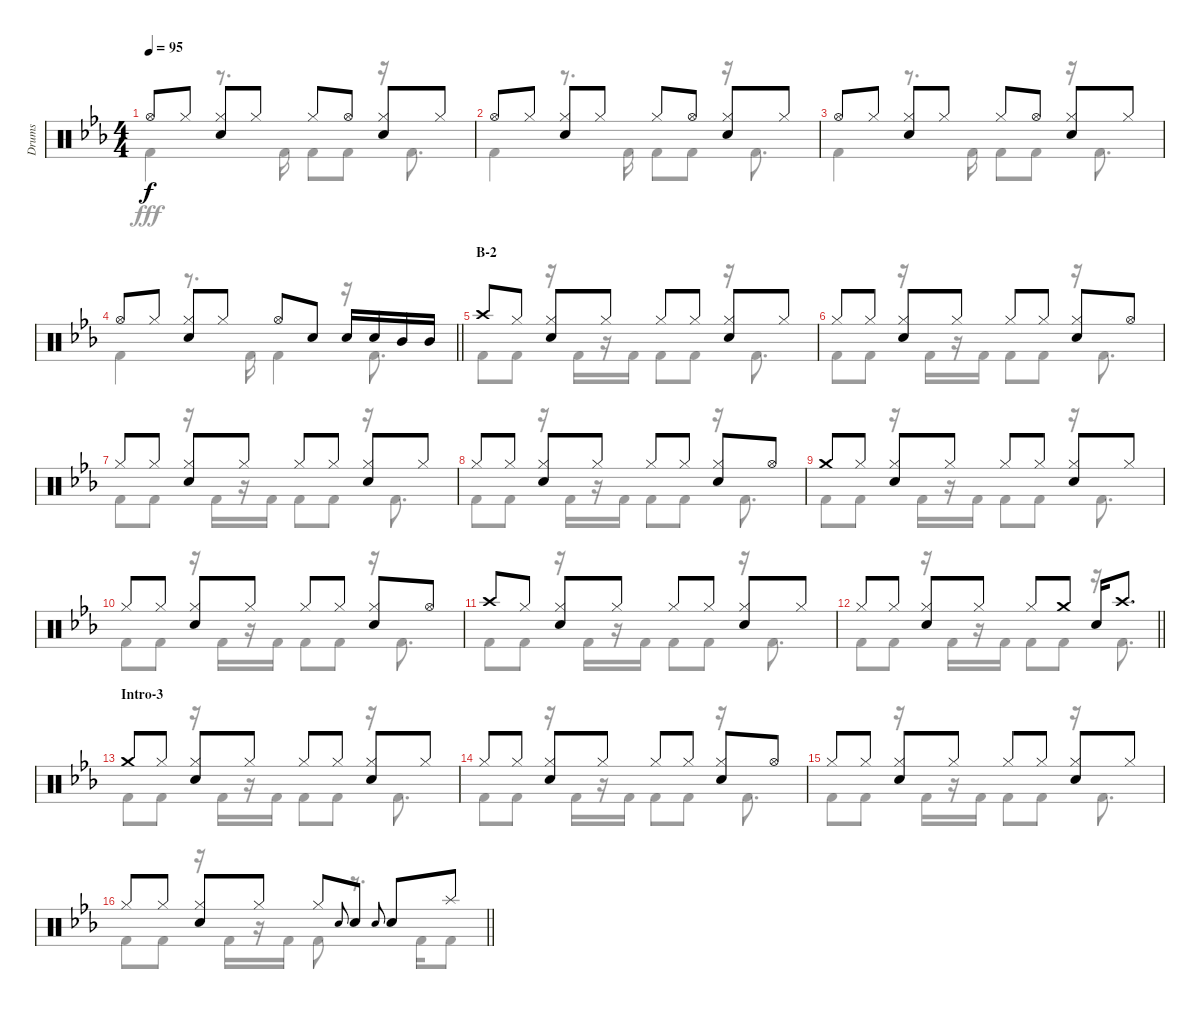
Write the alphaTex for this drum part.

\track ("Drums" "Drums") {instrument percussion}
\staff {score}
\articulation defaults
\voice
\ts (4 4)
\tempo 95
\clef neutral
\ks cminor "Hi-Hat (open)".8{dy f} "Hi-Hat (closed)".8
("Hi-Hat (closed)" "Snare (hit) 2").8 "Hi-Hat (closed)".8 "Hi-Hat (closed)".8 "Hi-Hat (open)".8 ("Hi-Hat (closed)" "Snare (hit) 2").8 "Hi-Hat (closed)".8 |
"Hi-Hat (open)".8 "Hi-Hat (closed)".8 ("Hi-Hat (closed)" "Snare (hit) 2").8 "Hi-Hat (closed)".8 "Hi-Hat (closed)".8 "Hi-Hat (open)".8 ("Hi-Hat (closed)" "Snare (hit) 2").8 "Hi-Hat (closed)".8 |
"Hi-Hat (open)".8 "Hi-Hat (closed)".8 ("Hi-Hat (closed)" "Snare (hit) 2").8 "Hi-Hat (closed)".8 "Hi-Hat (closed)".8 "Hi-Hat (open)".8 ("Hi-Hat (closed)" "Snare (hit) 2").8 "Hi-Hat (closed)".8 |
\barLineRight lightlight "Hi-Hat (open)".8 "Hi-Hat (closed)".8
("Hi-Hat (closed)" "Snare (hit) 2").8 "Hi-Hat (closed)".8 "Hi-Hat (open)".8 "Snare (hit) 2".8 "Snare (hit) 2".16 "Snare (hit) 2".16 "Mid Tom (hit)".16 "Mid Tom (hit)".16 |
\section ("" "B-2")
"Crash high (hit)".8 "Hi-Hat (closed)".8 ("Hi-Hat (closed)" "Snare (hit) 2").8 "Hi-Hat (closed)".8 "Hi-Hat (closed)".8 "Hi-Hat (closed)".8 ("Hi-Hat (closed)" "Snare (hit) 2").8 "Hi-Hat (closed)".8 |
"Hi-Hat (closed)".8 "Hi-Hat (closed)".8 ("Hi-Hat (closed)" "Snare (hit) 2").8 "Hi-Hat (closed)".8 "Hi-Hat (closed)".8 "Hi-Hat (closed)".8 ("Hi-Hat (closed)" "Snare (hit) 2").8 "Hi-Hat (open)".8 |
"Hi-Hat (closed)".8 "Hi-Hat (closed)".8 ("Hi-Hat (closed)" "Snare (hit) 2").8 "Hi-Hat (closed)".8 "Hi-Hat (closed)".8 "Hi-Hat (closed)".8 ("Hi-Hat (closed)" "Snare (hit) 2").8 "Hi-Hat (closed)".8 |
"Hi-Hat (closed)".8 "Hi-Hat (closed)".8 ("Hi-Hat (closed)" "Snare (hit) 2").8 "Hi-Hat (closed)".8 "Hi-Hat (closed)".8 "Hi-Hat (closed)".8 ("Hi-Hat (closed)" "Snare (hit) 2").8 "Hi-Hat (open)".8 |
"Crash medium (hit)".8 "Hi-Hat (closed)".8 ("Hi-Hat (closed)" "Snare (hit) 2").8 "Hi-Hat (closed)".8 "Hi-Hat (closed)".8 "Hi-Hat (closed)".8 ("Hi-Hat (closed)" "Snare (hit) 2").8 "Hi-Hat (closed)".8 |
"Hi-Hat (closed)".8 "Hi-Hat (closed)".8 ("Hi-Hat (closed)" "Snare (hit) 2").8 "Hi-Hat (closed)".8 "Hi-Hat (closed)".8 "Hi-Hat (closed)".8 ("Hi-Hat (closed)" "Snare (hit) 2").8 "Hi-Hat (open)".8 |
"Crash high (hit)".8 "Hi-Hat (closed)".8 ("Hi-Hat (closed)" "Snare (hit) 2").8 "Hi-Hat (closed)".8 "Hi-Hat (closed)".8 "Hi-Hat (closed)".8 ("Hi-Hat (closed)" "Snare (hit) 2").8 "Hi-Hat (closed)".8 |
\barLineRight lightlight "Hi-Hat (closed)".8 "Hi-Hat (closed)".8
("Hi-Hat (closed)" "Snare (hit) 2").8 "Hi-Hat (closed)".8 "Hi-Hat (closed)".8 "Crash medium (hit)".8 "Snare (hit) 2".16 "Crash high (hit)".8{d} |
\section ("" "Intro-3")
"Crash medium (hit)".8 "Hi-Hat (closed)".8 ("Hi-Hat (closed)" "Snare (hit) 2").8 "Hi-Hat (closed)".8 "Hi-Hat (closed)".8 "Hi-Hat (closed)".8 ("Hi-Hat (closed)" "Snare (hit) 2").8 "Hi-Hat (closed)".8 |
"Hi-Hat (closed)".8 "Hi-Hat (closed)".8 ("Hi-Hat (closed)" "Snare (hit) 2").8 "Hi-Hat (closed)".8 "Hi-Hat (closed)".8 "Hi-Hat (closed)".8 ("Hi-Hat (closed)" "Snare (hit) 2").8 "Hi-Hat (open)".8 |
"Hi-Hat (closed)".8 "Hi-Hat (closed)".8 ("Hi-Hat (closed)" "Snare (hit) 2").8 "Hi-Hat (closed)".8 "Hi-Hat (closed)".8 "Hi-Hat (closed)".8 ("Hi-Hat (closed)" "Snare (hit) 2").8 "Hi-Hat (closed)".8 |
\barLineRight lightlight "Hi-Hat (closed)".8 "Hi-Hat (closed)".8
("Hi-Hat (closed)" "Snare (hit) 2").8 "Hi-Hat (closed)".8 "Hi-Hat (closed)".8 "Snare (hit) 2".8{gr onbeat} "Snare (hit) 2".8 "Snare (hit) 2".8{gr onbeat} "Snare (hit) 2".8 "Splash (hit)".8
\voice
\clef neutral
\ottava regular
\simile none
\ks cminor "Kick (hit) 2".4{dy fff}
r.8{d} "Kick (hit) 2".16 "Kick (hit) 2".8 "Kick (hit) 2".8 r.16 "Kick (hit) 2".8{d} |
"Kick (hit) 2".4 r.8{d} "Kick (hit) 2".16 "Kick (hit) 2".8 "Kick (hit) 2".8 r.16 "Kick (hit) 2".8{d} |
"Kick (hit) 2".4 r.8{d} "Kick (hit) 2".16 "Kick (hit) 2".8 "Kick (hit) 2".8 r.16 "Kick (hit) 2".8{d} |
\barLineRight lightlight "Kick (hit) 2".4
r.8{d} "Kick (hit) 2".16 "Kick (hit) 2".4 r.16 "Kick (hit) 2".8{d} |
"Kick (hit) 2".8 "Kick (hit) 2".8 r.16 "Kick (hit) 2".16 r.16 "Kick (hit) 2".16 "Kick (hit) 2".8 "Kick (hit) 2".8 r.16 "Kick (hit) 2".8{d} |
"Kick (hit) 2".8 "Kick (hit) 2".8 r.16 "Kick (hit) 2".16 r.16 "Kick (hit) 2".16 "Kick (hit) 2".8 "Kick (hit) 2".8 r.16 "Kick (hit) 2".8{d} |
"Kick (hit) 2".8 "Kick (hit) 2".8 r.16 "Kick (hit) 2".16 r.16 "Kick (hit) 2".16 "Kick (hit) 2".8 "Kick (hit) 2".8 r.16 "Kick (hit) 2".8{d} |
"Kick (hit) 2".8 "Kick (hit) 2".8 r.16 "Kick (hit) 2".16 r.16 "Kick (hit) 2".16 "Kick (hit) 2".8 "Kick (hit) 2".8 r.16 "Kick (hit) 2".8{d} |
"Kick (hit) 2".8 "Kick (hit) 2".8 r.16 "Kick (hit) 2".16 r.16 "Kick (hit) 2".16 "Kick (hit) 2".8 "Kick (hit) 2".8 r.16 "Kick (hit) 2".8{d} |
"Kick (hit) 2".8 "Kick (hit) 2".8 r.16 "Kick (hit) 2".16 r.16 "Kick (hit) 2".16 "Kick (hit) 2".8 "Kick (hit) 2".8 r.16 "Kick (hit) 2".8{d} |
"Kick (hit) 2".8 "Kick (hit) 2".8 r.16 "Kick (hit) 2".16 r.16 "Kick (hit) 2".16 "Kick (hit) 2".8 "Kick (hit) 2".8 r.16 "Kick (hit) 2".8{d} |
\barLineRight lightlight "Kick (hit) 2".8 "Kick (hit) 2".8
r.16 "Kick (hit) 2".16 r.16 "Kick (hit) 2".16 "Kick (hit) 2".8 "Kick (hit) 2".8 r.16 "Kick (hit) 2".8{d} |
"Kick (hit) 2".8 "Kick (hit) 2".8 r.16 "Kick (hit) 2".16 r.16 "Kick (hit) 2".16 "Kick (hit) 2".8 "Kick (hit) 2".8 r.16 "Kick (hit) 2".8{d} |
"Kick (hit) 2".8 "Kick (hit) 2".8 r.16 "Kick (hit) 2".16 r.16 "Kick (hit) 2".16 "Kick (hit) 2".8 "Kick (hit) 2".8 r.16 "Kick (hit) 2".8{d} |
"Kick (hit) 2".8 "Kick (hit) 2".8 r.16 "Kick (hit) 2".16 r.16 "Kick (hit) 2".16 "Kick (hit) 2".8 "Kick (hit) 2".8 r.16 "Kick (hit) 2".8{d} |
\barLineRight lightlight "Kick (hit) 2".8 "Kick (hit) 2".8
r.16 "Kick (hit) 2".16 r.16 "Kick (hit) 2".16 "Kick (hit) 2".8 r.8{d} "Kick (hit) 2".16 "Kick (hit) 2".8
